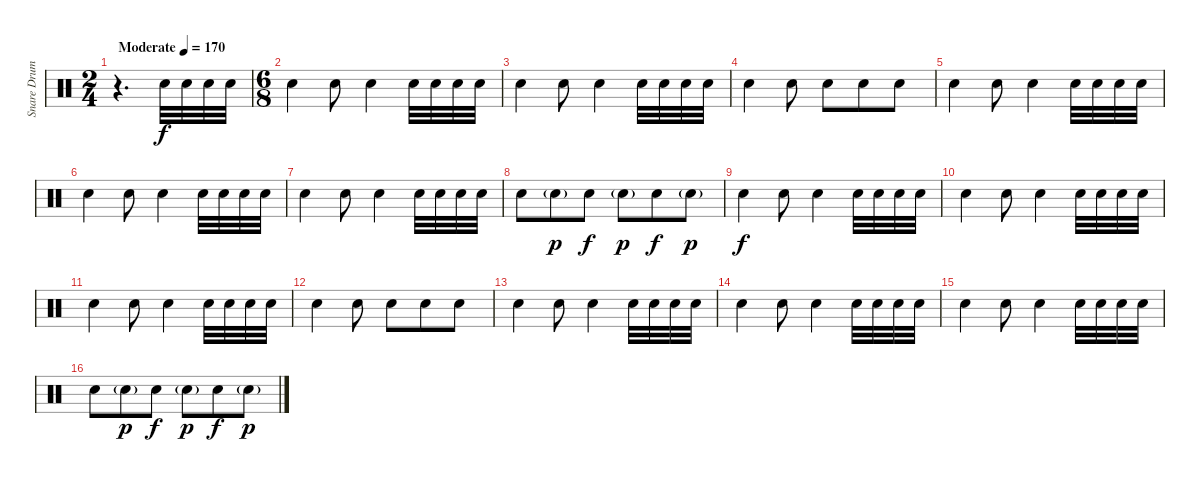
\track ("Snare Drum" "Snare Drum") {instrument percussion}
\staff {score}
\articulation defaults
\ts (2 4)
\tempo (170 "Moderate")
\clef neutral
\ks c
r.4{d dy f} "Snare (hit) 2".32 "Snare (hit) 2".32 "Snare (hit) 2".32 "Snare (hit) 2".32 |
\ts (6 8)
"Snare (hit) 2".4 "Snare (hit) 2".8 "Snare (hit) 2".4 "Snare (hit) 2".32 "Snare (hit) 2".32 "Snare (hit) 2".32 "Snare (hit) 2".32 |
"Snare (hit) 2".4 "Snare (hit) 2".8 "Snare (hit) 2".4 "Snare (hit) 2".32 "Snare (hit) 2".32 "Snare (hit) 2".32 "Snare (hit) 2".32 |
"Snare (hit) 2".4 "Snare (hit) 2".8 "Snare (hit) 2".8 "Snare (hit) 2".8 "Snare (hit) 2".8 |
"Snare (hit) 2".4 "Snare (hit) 2".8 "Snare (hit) 2".4 "Snare (hit) 2".32 "Snare (hit) 2".32 "Snare (hit) 2".32 "Snare (hit) 2".32 |
"Snare (hit) 2".4 "Snare (hit) 2".8 "Snare (hit) 2".4 "Snare (hit) 2".32 "Snare (hit) 2".32 "Snare (hit) 2".32 "Snare (hit) 2".32 |
"Snare (hit) 2".4 "Snare (hit) 2".8 "Snare (hit) 2".4 "Snare (hit) 2".32 "Snare (hit) 2".32 "Snare (hit) 2".32 "Snare (hit) 2".32 |
"Snare (hit) 2".8 "Snare (hit) 2"{g}.8{dy p} "Snare (hit) 2".8{dy f} "Snare (hit) 2"{g}.8{dy p} "Snare (hit) 2".8{dy f} "Snare (hit) 2"{g}.8{dy p} |
"Snare (hit) 2".4{dy f} "Snare (hit) 2".8 "Snare (hit) 2".4 "Snare (hit) 2".32 "Snare (hit) 2".32 "Snare (hit) 2".32 "Snare (hit) 2".32 |
"Snare (hit) 2".4 "Snare (hit) 2".8 "Snare (hit) 2".4 "Snare (hit) 2".32 "Snare (hit) 2".32 "Snare (hit) 2".32 "Snare (hit) 2".32 |
"Snare (hit) 2".4 "Snare (hit) 2".8 "Snare (hit) 2".4 "Snare (hit) 2".32 "Snare (hit) 2".32 "Snare (hit) 2".32 "Snare (hit) 2".32 |
"Snare (hit) 2".4 "Snare (hit) 2".8 "Snare (hit) 2".8 "Snare (hit) 2".8 "Snare (hit) 2".8 |
"Snare (hit) 2".4 "Snare (hit) 2".8 "Snare (hit) 2".4 "Snare (hit) 2".32 "Snare (hit) 2".32 "Snare (hit) 2".32 "Snare (hit) 2".32 |
"Snare (hit) 2".4 "Snare (hit) 2".8 "Snare (hit) 2".4 "Snare (hit) 2".32 "Snare (hit) 2".32 "Snare (hit) 2".32 "Snare (hit) 2".32 |
"Snare (hit) 2".4 "Snare (hit) 2".8 "Snare (hit) 2".4 "Snare (hit) 2".32 "Snare (hit) 2".32 "Snare (hit) 2".32 "Snare (hit) 2".32 |
"Snare (hit) 2".8 "Snare (hit) 2"{g}.8{dy p} "Snare (hit) 2".8{dy f} "Snare (hit) 2"{g}.8{dy p} "Snare (hit) 2".8{dy f} "Snare (hit) 2"{g}.8{dy p}
